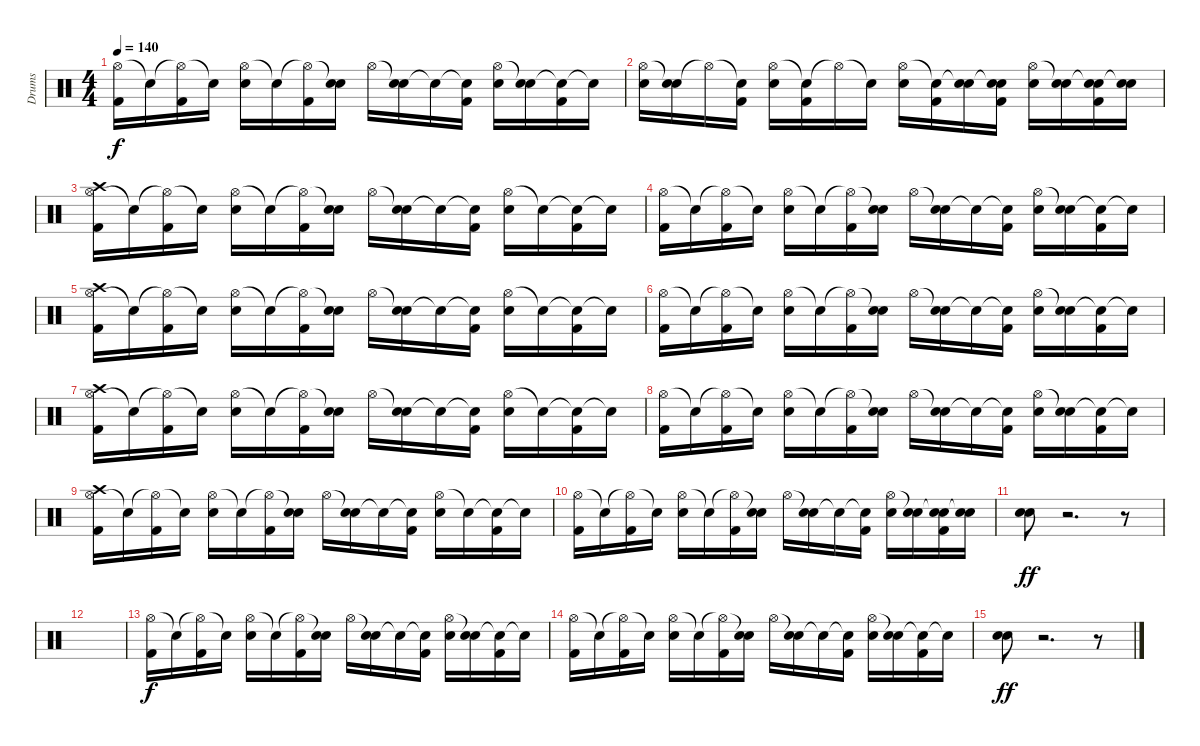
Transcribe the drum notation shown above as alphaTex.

\track ("Drums" "Drums") {instrument percussion}
\staff {score}
\articulation defaults
\ts (4 4)
\tempo 140
\clef neutral
\ks c
("Hi-Hat (open)" "Kick (hit) 2").16{dy f} "Snare (hit)"{t}.16 ("Hi-Hat (open)"{t} "Kick (hit) 2").16 "Snare (hit)"{t}.16 ("Hi-Hat (open)" "Electric Snare (hit)").16 "Snare (hit)"{t}.16 ("Hi-Hat (open)"{t} "Kick (hit) 2").16 ("Snare (hit)"{t} "Electric Snare (hit)").16 "Hi-Hat (open)".16 ("Snare (hit)"{t} "Electric Snare (hit)").16 "Snare (hit)"{t}.16 ("Snare (hit)"{t} "Kick (hit) 2").16 ("Hi-Hat (open)" "Electric Snare (hit)").16 ("Snare (hit)"{t} "Electric Snare (hit)").16 ("Snare (hit)"{t} "Kick (hit) 2").16 "Snare (hit)"{t}.16 |
("Hi-Hat (open)" "Electric Snare (hit)").16 ("Snare (hit)"{t} "Electric Snare (hit)").16 "Hi-Hat (open)"{t}.16 ("Snare (hit)"{t} "Kick (hit) 2").16 ("Hi-Hat (open)" "Electric Snare (hit)").16 ("Snare (hit)"{t} "Kick (hit) 2").16 "Hi-Hat (open)"{t}.16 "Snare (hit)"{t}.16 ("Hi-Hat (open)" "Electric Snare (hit)").16 ("Snare (hit)"{t} "Kick (hit) 2").16 ("Snare (hit)"{t} "Electric Snare (hit)").16 ("Snare (hit)"{t} "Kick (hit) 2" "Electric Snare (hit)").16 ("Hi-Hat (open)" "Electric Snare (hit)").16 ("Snare (hit)"{t} "Electric Snare (hit)").16 ("Snare (hit)"{t} "Kick (hit) 2" "Electric Snare (hit)").16 ("Snare (hit)"{t} "Electric Snare (hit)").16 |
("Hi-Hat (open)" "Kick (hit) 2" "Crash high (hit)").16 "Snare (hit)"{t}.16 ("Hi-Hat (open)"{t} "Kick (hit) 2").16 "Snare (hit)"{t}.16 ("Hi-Hat (open)" "Electric Snare (hit)").16 "Snare (hit)"{t}.16 ("Hi-Hat (open)"{t} "Kick (hit) 2").16 ("Snare (hit)"{t} "Electric Snare (hit)").16 "Hi-Hat (open)".16 ("Snare (hit)"{t} "Electric Snare (hit)").16 "Snare (hit)"{t}.16 ("Snare (hit)"{t} "Kick (hit) 2").16 ("Hi-Hat (open)" "Electric Snare (hit)").16 "Snare (hit)"{t}.16 ("Snare (hit)"{t} "Kick (hit) 2").16 "Snare (hit)"{t}.16 |
("Hi-Hat (open)" "Kick (hit) 2").16 "Snare (hit)"{t}.16 ("Hi-Hat (open)"{t} "Kick (hit) 2").16 "Snare (hit)"{t}.16 ("Hi-Hat (open)" "Electric Snare (hit)").16 "Snare (hit)"{t}.16 ("Hi-Hat (open)"{t} "Kick (hit) 2").16 ("Snare (hit)"{t} "Electric Snare (hit)").16 "Hi-Hat (open)".16 ("Snare (hit)"{t} "Electric Snare (hit)").16 "Snare (hit)"{t}.16 ("Snare (hit)"{t} "Kick (hit) 2").16 ("Hi-Hat (open)" "Electric Snare (hit)").16 ("Snare (hit)"{t} "Electric Snare (hit)").16 ("Snare (hit)"{t} "Kick (hit) 2").16 "Snare (hit)"{t}.16 |
("Hi-Hat (open)" "Kick (hit) 2" "Crash high (hit)").16 "Snare (hit)"{t}.16 ("Hi-Hat (open)"{t} "Kick (hit) 2").16 "Snare (hit)"{t}.16 ("Hi-Hat (open)" "Electric Snare (hit)").16 "Snare (hit)"{t}.16 ("Hi-Hat (open)"{t} "Kick (hit) 2").16 ("Snare (hit)"{t} "Electric Snare (hit)").16 "Hi-Hat (open)".16 ("Snare (hit)"{t} "Electric Snare (hit)").16 "Snare (hit)"{t}.16 ("Snare (hit)"{t} "Kick (hit) 2").16 ("Hi-Hat (open)" "Electric Snare (hit)").16 "Snare (hit)"{t}.16 ("Snare (hit)"{t} "Kick (hit) 2").16 "Snare (hit)"{t}.16 |
("Hi-Hat (open)" "Kick (hit) 2").16 "Snare (hit)"{t}.16 ("Hi-Hat (open)"{t} "Kick (hit) 2").16 "Snare (hit)"{t}.16 ("Hi-Hat (open)" "Electric Snare (hit)").16 "Snare (hit)"{t}.16 ("Hi-Hat (open)"{t} "Kick (hit) 2").16 ("Snare (hit)"{t} "Electric Snare (hit)").16 "Hi-Hat (open)".16 ("Snare (hit)"{t} "Electric Snare (hit)").16 "Snare (hit)"{t}.16 ("Snare (hit)"{t} "Kick (hit) 2").16 ("Hi-Hat (open)" "Electric Snare (hit)").16 ("Snare (hit)"{t} "Electric Snare (hit)").16 ("Snare (hit)"{t} "Kick (hit) 2").16 "Snare (hit)"{t}.16 |
("Hi-Hat (open)" "Kick (hit) 2" "Crash high (hit)").16 "Snare (hit)"{t}.16 ("Hi-Hat (open)"{t} "Kick (hit) 2").16 "Snare (hit)"{t}.16 ("Hi-Hat (open)" "Electric Snare (hit)").16 "Snare (hit)"{t}.16 ("Hi-Hat (open)"{t} "Kick (hit) 2").16 ("Snare (hit)"{t} "Electric Snare (hit)").16 "Hi-Hat (open)".16 ("Snare (hit)"{t} "Electric Snare (hit)").16 "Snare (hit)"{t}.16 ("Snare (hit)"{t} "Kick (hit) 2").16 ("Hi-Hat (open)" "Electric Snare (hit)").16 "Snare (hit)"{t}.16 ("Snare (hit)"{t} "Kick (hit) 2").16 "Snare (hit)"{t}.16 |
("Hi-Hat (open)" "Kick (hit) 2").16 "Snare (hit)"{t}.16 ("Hi-Hat (open)"{t} "Kick (hit) 2").16 "Snare (hit)"{t}.16 ("Hi-Hat (open)" "Electric Snare (hit)").16 "Snare (hit)"{t}.16 ("Hi-Hat (open)"{t} "Kick (hit) 2").16 ("Snare (hit)"{t} "Electric Snare (hit)").16 "Hi-Hat (open)".16 ("Snare (hit)"{t} "Electric Snare (hit)").16 "Snare (hit)"{t}.16 ("Snare (hit)"{t} "Kick (hit) 2").16 ("Hi-Hat (open)" "Electric Snare (hit)").16 ("Snare (hit)"{t} "Electric Snare (hit)").16 ("Snare (hit)"{t} "Kick (hit) 2").16 "Snare (hit)"{t}.16 |
("Hi-Hat (open)" "Kick (hit) 2" "Crash high (hit)").16 "Snare (hit)"{t}.16 ("Hi-Hat (open)"{t} "Kick (hit) 2").16 "Snare (hit)"{t}.16 ("Hi-Hat (open)" "Electric Snare (hit)").16 "Snare (hit)"{t}.16 ("Hi-Hat (open)"{t} "Kick (hit) 2").16 ("Snare (hit)"{t} "Electric Snare (hit)").16 "Hi-Hat (open)".16 ("Snare (hit)"{t} "Electric Snare (hit)").16 "Snare (hit)"{t}.16 ("Snare (hit)"{t} "Kick (hit) 2").16 ("Hi-Hat (open)" "Electric Snare (hit)").16 "Snare (hit)"{t}.16 ("Snare (hit)"{t} "Kick (hit) 2").16 "Snare (hit)"{t}.16 |
("Hi-Hat (open)" "Kick (hit) 2").16 "Snare (hit)"{t}.16 ("Hi-Hat (open)"{t} "Kick (hit) 2").16 "Snare (hit)"{t}.16 ("Hi-Hat (open)" "Electric Snare (hit)").16 "Snare (hit)"{t}.16 ("Hi-Hat (open)"{t} "Kick (hit) 2").16 ("Snare (hit)"{t} "Electric Snare (hit)").16 "Hi-Hat (open)".16 ("Snare (hit)"{t} "Electric Snare (hit)").16 "Snare (hit)"{t}.16 ("Snare (hit)"{t} "Kick (hit) 2").16 ("Hi-Hat (open)" "Electric Snare (hit)").16 ("Snare (hit)"{t} "Electric Snare (hit)").16 ("Snare (hit)"{t} "Kick (hit) 2" "Electric Snare (hit)").16 ("Snare (hit)"{t} "Electric Snare (hit)").16 |
("Electric Snare (hit)" "Electric Snare (hit)").8{dy ff} r.2{d} r.8 |
|
("Hi-Hat (open)" "Kick (hit) 2").16{dy f} "Snare (hit)"{t}.16 ("Hi-Hat (open)"{t} "Kick (hit) 2").16 "Snare (hit)"{t}.16 ("Hi-Hat (open)" "Electric Snare (hit)").16 "Snare (hit)"{t}.16 ("Hi-Hat (open)"{t} "Kick (hit) 2").16 ("Snare (hit)"{t} "Electric Snare (hit)").16 "Hi-Hat (open)".16 ("Snare (hit)"{t} "Electric Snare (hit)").16 "Snare (hit)"{t}.16 ("Snare (hit)"{t} "Kick (hit) 2").16 ("Hi-Hat (open)" "Electric Snare (hit)").16 ("Snare (hit)"{t} "Electric Snare (hit)").16 ("Snare (hit)"{t} "Kick (hit) 2").16 "Snare (hit)"{t}.16 |
("Hi-Hat (open)" "Kick (hit) 2").16 "Snare (hit)"{t}.16 ("Hi-Hat (open)"{t} "Kick (hit) 2").16 "Snare (hit)"{t}.16 ("Hi-Hat (open)" "Electric Snare (hit)").16 "Snare (hit)"{t}.16 ("Hi-Hat (open)"{t} "Kick (hit) 2").16 ("Snare (hit)"{t} "Electric Snare (hit)").16 "Hi-Hat (open)".16 ("Snare (hit)"{t} "Electric Snare (hit)").16 "Snare (hit)"{t}.16 ("Snare (hit)"{t} "Kick (hit) 2").16 ("Hi-Hat (open)" "Electric Snare (hit)").16 ("Snare (hit)"{t} "Electric Snare (hit)").16 ("Snare (hit)"{t} "Kick (hit) 2").16 "Snare (hit)"{t}.16 |
("Electric Snare (hit)" "Electric Snare (hit)").8{dy ff} r.2{d} r.8
